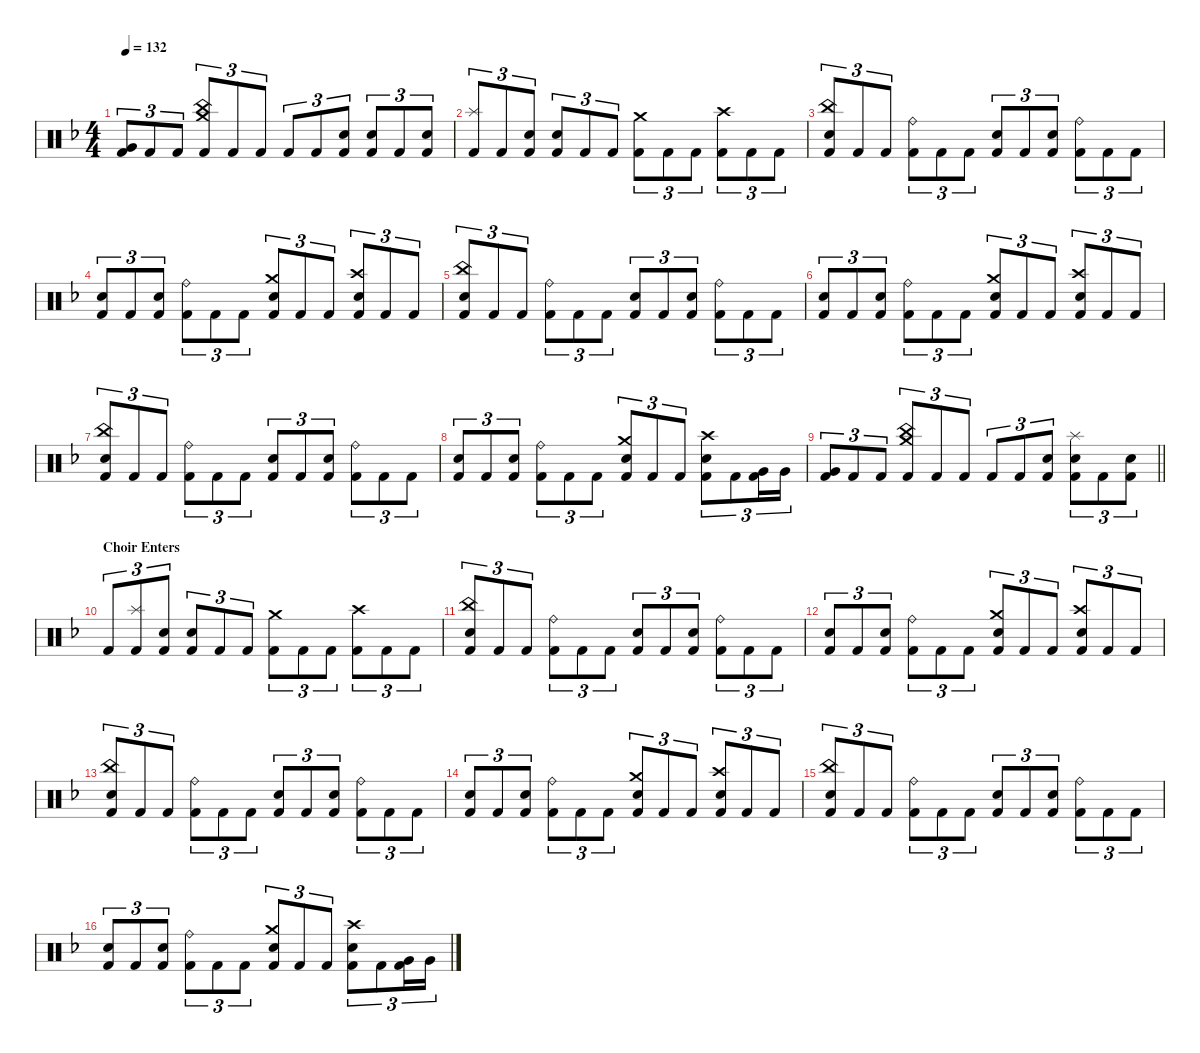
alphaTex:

\defaultSystemsLayout 4
\hideDynamics
\bracketExtendMode nobrackets
\singleTrackTrackNamePolicy hidden
\multiTrackTrackNamePolicy hidden
\firstSystemTrackNameMode fullname
\firstSystemTrackNameOrientation horizontal
\otherSystemsTrackNameOrientation horizontal
\track ("Drums" "drm.") {instrument percussion}
\staff {score}
\articulation defaults
\ts (4 4)
\tempo 132
\clef neutral
\ks dminor
("Very Low Tom (hit)"{acc forcenatural} "Kick (hit) 2"{acc forcenatural}).8{tu (3 2) dy f beam Up} "Kick (hit) 2"{acc forcenatural}.8{tu (3 2) beam Up} "Kick (hit) 2"{acc forcenatural}.8{tu (3 2) beam Up} ("China (hit)"{acc forcenatural} "Crash medium (hit)"{acc forcenatural} "Kick (hit) 2"{acc forcenatural}).8{tu (3 2) beam Up} "Kick (hit) 2"{acc forcenatural}.8{tu (3 2) beam Up} "Kick (hit) 2"{acc forcenatural}.8{tu (3 2) beam Up} "Kick (hit) 2"{acc forcenatural}.8{tu (3 2) beam Up} "Kick (hit) 2"{acc forcenatural}.8{tu (3 2) beam Up} ("Snare (hit) 2"{acc forcenatural} "Kick (hit) 2"{acc forcenatural}).8{tu (3 2) beam Up} ("Snare (hit) 2"{acc forcenatural} "Kick (hit) 2"{acc forcenatural}).8{tu (3 2) beam Up} "Kick (hit) 2"{acc forcenatural}.8{tu (3 2) beam Up} ("Snare (hit) 2"{acc forcenatural} "Kick (hit) 2"{acc forcenatural}).8{tu (3 2) beam Up} |
("Splash (hit)"{acc forcenatural} "Kick (hit) 2"{acc forcenatural}).8{tu (3 2) beam Up} "Kick (hit) 2"{acc forcenatural}.8{tu (3 2) beam Up} ("Snare (hit) 2"{acc forcenatural} "Kick (hit) 2"{acc forcenatural}).8{tu (3 2) beam Up} ("Snare (hit) 2"{acc forcenatural} "Kick (hit) 2"{acc forcenatural}).8{tu (3 2) beam Up} "Kick (hit) 2"{acc forcenatural}.8{tu (3 2) beam Up} "Kick (hit) 2"{acc forcenatural}.8{tu (3 2) beam Up} ("Crash medium (hit)"{acc forcenatural} "Kick (hit) 2"{acc forcenatural}).8{tu (3 2) beam Down} "Kick (hit) 2"{acc forcenatural}.8{tu (3 2) beam Down} "Kick (hit) 2"{acc forcenatural}.8{tu (3 2) beam Down} ("Crash high (hit)"{acc forcenatural} "Kick (hit) 2"{acc forcenatural}).8{tu (3 2) beam Down} "Kick (hit) 2"{acc forcenatural}.8{tu (3 2) beam Down} "Kick (hit) 2"{acc forcenatural}.8{tu (3 2) beam Down} |
("China (hit)"{acc forcenatural} "Snare (hit) 2"{acc forcenatural} "Kick (hit) 2"{acc forcenatural}).8{tu (3 2) beam Up} "Kick (hit) 2"{acc forcenatural}.8{tu (3 2) beam Up} "Kick (hit) 2"{acc forcenatural}.8{tu (3 2) beam Up} ("Ride (bell)"{acc forcenatural} "Kick (hit) 2"{acc forcenatural}).8{tu (3 2) beam Down} "Kick (hit) 2"{acc forcenatural}.8{tu (3 2) beam Down} "Kick (hit) 2"{acc forcenatural}.8{tu (3 2) beam Down} ("Snare (hit) 2"{acc forcenatural} "Kick (hit) 2"{acc forcenatural}).8{tu (3 2) beam Up} "Kick (hit) 2"{acc forcenatural}.8{tu (3 2) beam Up} ("Snare (hit) 2"{acc forcenatural} "Kick (hit) 2"{acc forcenatural}).8{tu (3 2) beam Up} ("Ride (bell)"{acc forcenatural} "Kick (hit) 2"{acc forcenatural}).8{tu (3 2) beam Down} "Kick (hit) 2"{acc forcenatural}.8{tu (3 2) beam Down} "Kick (hit) 2"{acc forcenatural}.8{tu (3 2) beam Down} |
("Snare (hit) 2"{acc forcenatural} "Kick (hit) 2"{acc forcenatural}).8{tu (3 2) beam Up} "Kick (hit) 2"{acc forcenatural}.8{tu (3 2) beam Up} ("Snare (hit) 2"{acc forcenatural} "Kick (hit) 2"{acc forcenatural}).8{tu (3 2) beam Up} ("Ride (bell)"{acc forcenatural} "Kick (hit) 2"{acc forcenatural}).8{tu (3 2) beam Down} "Kick (hit) 2"{acc forcenatural}.8{tu (3 2) beam Down} "Kick (hit) 2"{acc forcenatural}.8{tu (3 2) beam Down} ("Crash medium (hit)"{acc forcenatural} "Snare (hit) 2"{acc forcenatural} "Kick (hit) 2"{acc forcenatural}).8{tu (3 2) beam Up} "Kick (hit) 2"{acc forcenatural}.8{tu (3 2) beam Up} "Kick (hit) 2"{acc forcenatural}.8{tu (3 2) beam Up} ("Crash high (hit)"{acc forcenatural} "Snare (hit) 2"{acc forcenatural} "Kick (hit) 2"{acc forcenatural}).8{tu (3 2) beam Up} "Kick (hit) 2"{acc forcenatural}.8{tu (3 2) beam Up} "Kick (hit) 2"{acc forcenatural}.8{tu (3 2) beam Up} |
("China (hit)"{acc forcenatural} "Snare (hit) 2"{acc forcenatural} "Kick (hit) 2"{acc forcenatural}).8{tu (3 2) beam Up} "Kick (hit) 2"{acc forcenatural}.8{tu (3 2) beam Up} "Kick (hit) 2"{acc forcenatural}.8{tu (3 2) beam Up} ("Ride (bell)"{acc forcenatural} "Kick (hit) 2"{acc forcenatural}).8{tu (3 2) beam Down} "Kick (hit) 2"{acc forcenatural}.8{tu (3 2) beam Down} "Kick (hit) 2"{acc forcenatural}.8{tu (3 2) beam Down} ("Snare (hit) 2"{acc forcenatural} "Kick (hit) 2"{acc forcenatural}).8{tu (3 2) beam Up} "Kick (hit) 2"{acc forcenatural}.8{tu (3 2) beam Up} ("Snare (hit) 2"{acc forcenatural} "Kick (hit) 2"{acc forcenatural}).8{tu (3 2) beam Up} ("Ride (bell)"{acc forcenatural} "Kick (hit) 2"{acc forcenatural}).8{tu (3 2) beam Down} "Kick (hit) 2"{acc forcenatural}.8{tu (3 2) beam Down} "Kick (hit) 2"{acc forcenatural}.8{tu (3 2) beam Down} |
("Snare (hit) 2"{acc forcenatural} "Kick (hit) 2"{acc forcenatural}).8{tu (3 2) beam Up} "Kick (hit) 2"{acc forcenatural}.8{tu (3 2) beam Up} ("Snare (hit) 2"{acc forcenatural} "Kick (hit) 2"{acc forcenatural}).8{tu (3 2) beam Up} ("Ride (bell)"{acc forcenatural} "Kick (hit) 2"{acc forcenatural}).8{tu (3 2) beam Down} "Kick (hit) 2"{acc forcenatural}.8{tu (3 2) beam Down} "Kick (hit) 2"{acc forcenatural}.8{tu (3 2) beam Down} ("Crash medium (hit)"{acc forcenatural} "Snare (hit) 2"{acc forcenatural} "Kick (hit) 2"{acc forcenatural}).8{tu (3 2) beam Up} "Kick (hit) 2"{acc forcenatural}.8{tu (3 2) beam Up} "Kick (hit) 2"{acc forcenatural}.8{tu (3 2) beam Up} ("Crash high (hit)"{acc forcenatural} "Snare (hit) 2"{acc forcenatural} "Kick (hit) 2"{acc forcenatural}).8{tu (3 2) beam Up} "Kick (hit) 2"{acc forcenatural}.8{tu (3 2) beam Up} "Kick (hit) 2"{acc forcenatural}.8{tu (3 2) beam Up} |
("China (hit)"{acc forcenatural} "Snare (hit) 2"{acc forcenatural} "Kick (hit) 2"{acc forcenatural}).8{tu (3 2) beam Up} "Kick (hit) 2"{acc forcenatural}.8{tu (3 2) beam Up} "Kick (hit) 2"{acc forcenatural}.8{tu (3 2) beam Up} ("Ride (bell)"{acc forcenatural} "Kick (hit) 2"{acc forcenatural}).8{tu (3 2) beam Down} "Kick (hit) 2"{acc forcenatural}.8{tu (3 2) beam Down} "Kick (hit) 2"{acc forcenatural}.8{tu (3 2) beam Down} ("Snare (hit) 2"{acc forcenatural} "Kick (hit) 2"{acc forcenatural}).8{tu (3 2) beam Up} "Kick (hit) 2"{acc forcenatural}.8{tu (3 2) beam Up} ("Snare (hit) 2"{acc forcenatural} "Kick (hit) 2"{acc forcenatural}).8{tu (3 2) beam Up} ("Ride (bell)"{acc forcenatural} "Kick (hit) 2"{acc forcenatural}).8{tu (3 2) beam Down} "Kick (hit) 2"{acc forcenatural}.8{tu (3 2) beam Down} "Kick (hit) 2"{acc forcenatural}.8{tu (3 2) beam Down} |
("Snare (hit) 2"{acc forcenatural} "Kick (hit) 2"{acc forcenatural}).8{tu (3 2) beam Up} "Kick (hit) 2"{acc forcenatural}.8{tu (3 2) beam Up} ("Snare (hit) 2"{acc forcenatural} "Kick (hit) 2"{acc forcenatural}).8{tu (3 2) beam Up} ("Ride (bell)"{acc forcenatural} "Kick (hit) 2"{acc forcenatural}).8{tu (3 2) beam Down} "Kick (hit) 2"{acc forcenatural}.8{tu (3 2) beam Down} "Kick (hit) 2"{acc forcenatural}.8{tu (3 2) beam Down} ("Crash medium (hit)"{acc forcenatural} "Snare (hit) 2"{acc forcenatural} "Kick (hit) 2"{acc forcenatural}).8{tu (3 2) beam Up} "Kick (hit) 2"{acc forcenatural}.8{tu (3 2) beam Up} "Kick (hit) 2"{acc forcenatural}.8{tu (3 2) beam Up} ("Crash high (hit)"{acc forcenatural} "Snare (hit) 2"{acc forcenatural} "Kick (hit) 2"{acc forcenatural}).8{tu (3 2) beam Down} "Kick (hit) 2"{acc forcenatural}.8{tu (3 2) beam Down} ("Very Low Tom (hit)"{acc forcenatural} "Kick (hit) 2"{acc forcenatural}).16{tu (3 2) beam Down} "Very Low Tom (hit)"{acc forcenatural}.16{tu (3 2) beam Down} |
\barLineRight lightlight
("Very Low Tom (hit)"{acc forcenatural} "Kick (hit) 2"{acc forcenatural}).8{tu (3 2) beam Up} "Kick (hit) 2"{acc forcenatural}.8{tu (3 2) beam Up} "Kick (hit) 2"{acc forcenatural}.8{tu (3 2) beam Up} ("China (hit)"{acc forcenatural} "Crash medium (hit)"{acc forcenatural} "Kick (hit) 2"{acc forcenatural}).8{tu (3 2) beam Up} "Kick (hit) 2"{acc forcenatural}.8{tu (3 2) beam Up} "Kick (hit) 2"{acc forcenatural}.8{tu (3 2) beam Up} "Kick (hit) 2"{acc forcenatural}.8{tu (3 2) beam Up} "Kick (hit) 2"{acc forcenatural}.8{tu (3 2) beam Up} ("Snare (hit) 2"{acc forcenatural} "Kick (hit) 2"{acc forcenatural}).8{tu (3 2) beam Up} ("Splash (hit)"{acc forcenatural} "Snare (hit) 2"{acc forcenatural} "Kick (hit) 2"{acc forcenatural}).8{tu (3 2) beam Down} "Kick (hit) 2"{acc forcenatural}.8{tu (3 2) beam Down} ("Snare (hit) 2"{acc forcenatural} "Kick (hit) 2"{acc forcenatural}).8{tu (3 2) beam Down} |
\section ("" "Choir Enters")
"Kick (hit) 2"{acc forcenatural}.8{tu (3 2) beam Up} ("Splash (hit)"{acc forcenatural} "Kick (hit) 2"{acc forcenatural}).8{tu (3 2) beam Up} ("Snare (hit) 2"{acc forcenatural} "Kick (hit) 2"{acc forcenatural}).8{tu (3 2) beam Up} ("Snare (hit) 2"{acc forcenatural} "Kick (hit) 2"{acc forcenatural}).8{tu (3 2) beam Up} "Kick (hit) 2"{acc forcenatural}.8{tu (3 2) beam Up} "Kick (hit) 2"{acc forcenatural}.8{tu (3 2) beam Up} ("Crash medium (hit)"{acc forcenatural} "Kick (hit) 2"{acc forcenatural}).8{tu (3 2) beam Down} "Kick (hit) 2"{acc forcenatural}.8{tu (3 2) beam Down} "Kick (hit) 2"{acc forcenatural}.8{tu (3 2) beam Down} ("Crash high (hit)"{acc forcenatural} "Kick (hit) 2"{acc forcenatural}).8{tu (3 2) beam Down} "Kick (hit) 2"{acc forcenatural}.8{tu (3 2) beam Down} "Kick (hit) 2"{acc forcenatural}.8{tu (3 2) beam Down} |
("China (hit)"{acc forcenatural} "Snare (hit) 2"{acc forcenatural} "Kick (hit) 2"{acc forcenatural}).8{tu (3 2) beam Up} "Kick (hit) 2"{acc forcenatural}.8{tu (3 2) beam Up} "Kick (hit) 2"{acc forcenatural}.8{tu (3 2) beam Up} ("Ride (bell)"{acc forcenatural} "Kick (hit) 2"{acc forcenatural}).8{tu (3 2) beam Down} "Kick (hit) 2"{acc forcenatural}.8{tu (3 2) beam Down} "Kick (hit) 2"{acc forcenatural}.8{tu (3 2) beam Down} ("Snare (hit) 2"{acc forcenatural} "Kick (hit) 2"{acc forcenatural}).8{tu (3 2) beam Up} "Kick (hit) 2"{acc forcenatural}.8{tu (3 2) beam Up} ("Snare (hit) 2"{acc forcenatural} "Kick (hit) 2"{acc forcenatural}).8{tu (3 2) beam Up} ("Ride (bell)"{acc forcenatural} "Kick (hit) 2"{acc forcenatural}).8{tu (3 2) beam Down} "Kick (hit) 2"{acc forcenatural}.8{tu (3 2) beam Down} "Kick (hit) 2"{acc forcenatural}.8{tu (3 2) beam Down} |
("Snare (hit) 2"{acc forcenatural} "Kick (hit) 2"{acc forcenatural}).8{tu (3 2) beam Up} "Kick (hit) 2"{acc forcenatural}.8{tu (3 2) beam Up} ("Snare (hit) 2"{acc forcenatural} "Kick (hit) 2"{acc forcenatural}).8{tu (3 2) beam Up} ("Ride (bell)"{acc forcenatural} "Kick (hit) 2"{acc forcenatural}).8{tu (3 2) beam Down} "Kick (hit) 2"{acc forcenatural}.8{tu (3 2) beam Down} "Kick (hit) 2"{acc forcenatural}.8{tu (3 2) beam Down} ("Crash medium (hit)"{acc forcenatural} "Snare (hit) 2"{acc forcenatural} "Kick (hit) 2"{acc forcenatural}).8{tu (3 2) beam Up} "Kick (hit) 2"{acc forcenatural}.8{tu (3 2) beam Up} "Kick (hit) 2"{acc forcenatural}.8{tu (3 2) beam Up} ("Crash high (hit)"{acc forcenatural} "Snare (hit) 2"{acc forcenatural} "Kick (hit) 2"{acc forcenatural}).8{tu (3 2) beam Up} "Kick (hit) 2"{acc forcenatural}.8{tu (3 2) beam Up} "Kick (hit) 2"{acc forcenatural}.8{tu (3 2) beam Up} |
("China (hit)"{acc forcenatural} "Snare (hit) 2"{acc forcenatural} "Kick (hit) 2"{acc forcenatural}).8{tu (3 2) beam Up} "Kick (hit) 2"{acc forcenatural}.8{tu (3 2) beam Up} "Kick (hit) 2"{acc forcenatural}.8{tu (3 2) beam Up} ("Ride (bell)"{acc forcenatural} "Kick (hit) 2"{acc forcenatural}).8{tu (3 2) beam Down} "Kick (hit) 2"{acc forcenatural}.8{tu (3 2) beam Down} "Kick (hit) 2"{acc forcenatural}.8{tu (3 2) beam Down} ("Snare (hit) 2"{acc forcenatural} "Kick (hit) 2"{acc forcenatural}).8{tu (3 2) beam Up} "Kick (hit) 2"{acc forcenatural}.8{tu (3 2) beam Up} ("Snare (hit) 2"{acc forcenatural} "Kick (hit) 2"{acc forcenatural}).8{tu (3 2) beam Up} ("Ride (bell)"{acc forcenatural} "Kick (hit) 2"{acc forcenatural}).8{tu (3 2) beam Down} "Kick (hit) 2"{acc forcenatural}.8{tu (3 2) beam Down} "Kick (hit) 2"{acc forcenatural}.8{tu (3 2) beam Down} |
("Snare (hit) 2"{acc forcenatural} "Kick (hit) 2"{acc forcenatural}).8{tu (3 2) beam Up} "Kick (hit) 2"{acc forcenatural}.8{tu (3 2) beam Up} ("Snare (hit) 2"{acc forcenatural} "Kick (hit) 2"{acc forcenatural}).8{tu (3 2) beam Up} ("Ride (bell)"{acc forcenatural} "Kick (hit) 2"{acc forcenatural}).8{tu (3 2) beam Down} "Kick (hit) 2"{acc forcenatural}.8{tu (3 2) beam Down} "Kick (hit) 2"{acc forcenatural}.8{tu (3 2) beam Down} ("Crash medium (hit)"{acc forcenatural} "Snare (hit) 2"{acc forcenatural} "Kick (hit) 2"{acc forcenatural}).8{tu (3 2) beam Up} "Kick (hit) 2"{acc forcenatural}.8{tu (3 2) beam Up} "Kick (hit) 2"{acc forcenatural}.8{tu (3 2) beam Up} ("Crash high (hit)"{acc forcenatural} "Snare (hit) 2"{acc forcenatural} "Kick (hit) 2"{acc forcenatural}).8{tu (3 2) beam Up} "Kick (hit) 2"{acc forcenatural}.8{tu (3 2) beam Up} "Kick (hit) 2"{acc forcenatural}.8{tu (3 2) beam Up} |
("China (hit)"{acc forcenatural} "Snare (hit) 2"{acc forcenatural} "Kick (hit) 2"{acc forcenatural}).8{tu (3 2) beam Up} "Kick (hit) 2"{acc forcenatural}.8{tu (3 2) beam Up} "Kick (hit) 2"{acc forcenatural}.8{tu (3 2) beam Up} ("Ride (bell)"{acc forcenatural} "Kick (hit) 2"{acc forcenatural}).8{tu (3 2) beam Down} "Kick (hit) 2"{acc forcenatural}.8{tu (3 2) beam Down} "Kick (hit) 2"{acc forcenatural}.8{tu (3 2) beam Down} ("Snare (hit) 2"{acc forcenatural} "Kick (hit) 2"{acc forcenatural}).8{tu (3 2) beam Up} "Kick (hit) 2"{acc forcenatural}.8{tu (3 2) beam Up} ("Snare (hit) 2"{acc forcenatural} "Kick (hit) 2"{acc forcenatural}).8{tu (3 2) beam Up} ("Ride (bell)"{acc forcenatural} "Kick (hit) 2"{acc forcenatural}).8{tu (3 2) beam Down} "Kick (hit) 2"{acc forcenatural}.8{tu (3 2) beam Down} "Kick (hit) 2"{acc forcenatural}.8{tu (3 2) beam Down} |
("Snare (hit) 2"{acc forcenatural} "Kick (hit) 2"{acc forcenatural}).8{tu (3 2) beam Up} "Kick (hit) 2"{acc forcenatural}.8{tu (3 2) beam Up} ("Snare (hit) 2"{acc forcenatural} "Kick (hit) 2"{acc forcenatural}).8{tu (3 2) beam Up} ("Ride (bell)"{acc forcenatural} "Kick (hit) 2"{acc forcenatural}).8{tu (3 2) beam Down} "Kick (hit) 2"{acc forcenatural}.8{tu (3 2) beam Down} "Kick (hit) 2"{acc forcenatural}.8{tu (3 2) beam Down} ("Crash medium (hit)"{acc forcenatural} "Snare (hit) 2"{acc forcenatural} "Kick (hit) 2"{acc forcenatural}).8{tu (3 2) beam Up} "Kick (hit) 2"{acc forcenatural}.8{tu (3 2) beam Up} "Kick (hit) 2"{acc forcenatural}.8{tu (3 2) beam Up} ("Crash high (hit)"{acc forcenatural} "Snare (hit) 2"{acc forcenatural} "Kick (hit) 2"{acc forcenatural}).8{tu (3 2) beam Down} "Kick (hit) 2"{acc forcenatural}.8{tu (3 2) beam Down} ("Very Low Tom (hit)"{acc forcenatural} "Kick (hit) 2"{acc forcenatural}).16{tu (3 2) beam Down} "Very Low Tom (hit)"{acc forcenatural}.16{tu (3 2) beam Down}
